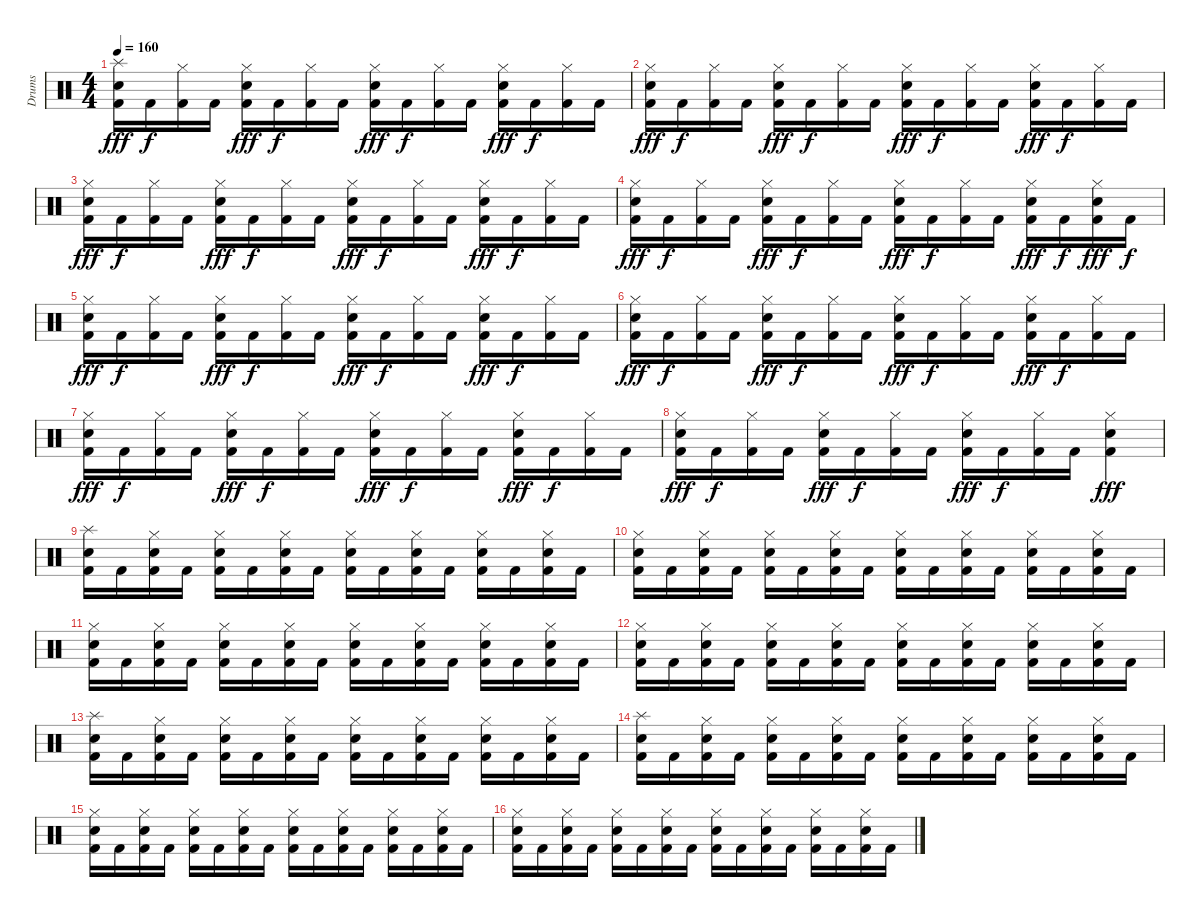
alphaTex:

\track ("Drums" "Drums") {instrument percussion}
\staff {score}
\articulation defaults
\ts (4 4)
\tempo 160
\clef neutral
\ks c
("Splash (hit)" "Snare (hit) 2" "Kick (hit) 2").16{dy fff} "Kick (hit) 2".16{dy f} ("Hi-Hat (closed)" "Kick (hit) 2").16 "Kick (hit) 2".16 ("Hi-Hat (closed)" "Snare (hit) 2" "Kick (hit) 2").16{dy fff} "Kick (hit) 2".16{dy f} ("Hi-Hat (closed)" "Kick (hit) 2").16 "Kick (hit) 2".16 ("Hi-Hat (closed)" "Snare (hit) 2" "Kick (hit) 2").16{dy fff} "Kick (hit) 2".16{dy f} ("Hi-Hat (closed)" "Kick (hit) 2").16 "Kick (hit) 2".16 ("Hi-Hat (closed)" "Snare (hit) 2" "Kick (hit) 2").16{dy fff} "Kick (hit) 2".16{dy f} ("Hi-Hat (closed)" "Kick (hit) 2").16 "Kick (hit) 2".16 |
("Hi-Hat (closed)" "Snare (hit) 2" "Kick (hit) 2").16{dy fff} "Kick (hit) 2".16{dy f} ("Hi-Hat (closed)" "Kick (hit) 2").16 "Kick (hit) 2".16 ("Hi-Hat (closed)" "Snare (hit) 2" "Kick (hit) 2").16{dy fff} "Kick (hit) 2".16{dy f} ("Hi-Hat (closed)" "Kick (hit) 2").16 "Kick (hit) 2".16 ("Hi-Hat (closed)" "Snare (hit) 2" "Kick (hit) 2").16{dy fff} "Kick (hit) 2".16{dy f} ("Hi-Hat (closed)" "Kick (hit) 2").16 "Kick (hit) 2".16 ("Hi-Hat (closed)" "Snare (hit) 2" "Kick (hit) 2").16{dy fff} "Kick (hit) 2".16{dy f} ("Hi-Hat (closed)" "Kick (hit) 2").16 "Kick (hit) 2".16 |
("Hi-Hat (closed)" "Snare (hit) 2" "Kick (hit) 2").16{dy fff} "Kick (hit) 2".16{dy f} ("Hi-Hat (closed)" "Kick (hit) 2").16 "Kick (hit) 2".16 ("Hi-Hat (closed)" "Snare (hit) 2" "Kick (hit) 2").16{dy fff} "Kick (hit) 2".16{dy f} ("Hi-Hat (closed)" "Kick (hit) 2").16 "Kick (hit) 2".16 ("Hi-Hat (closed)" "Snare (hit) 2" "Kick (hit) 2").16{dy fff} "Kick (hit) 2".16{dy f} ("Hi-Hat (closed)" "Kick (hit) 2").16 "Kick (hit) 2".16 ("Hi-Hat (closed)" "Snare (hit) 2" "Kick (hit) 2").16{dy fff} "Kick (hit) 2".16{dy f} ("Hi-Hat (closed)" "Kick (hit) 2").16 "Kick (hit) 2".16 |
("Hi-Hat (closed)" "Snare (hit) 2" "Kick (hit) 2").16{dy fff} "Kick (hit) 2".16{dy f} ("Hi-Hat (closed)" "Kick (hit) 2").16 "Kick (hit) 2".16 ("Hi-Hat (closed)" "Snare (hit) 2" "Kick (hit) 2").16{dy fff} "Kick (hit) 2".16{dy f} ("Hi-Hat (closed)" "Kick (hit) 2").16 "Kick (hit) 2".16 ("Hi-Hat (closed)" "Snare (hit) 2" "Kick (hit) 2").16{dy fff} "Kick (hit) 2".16{dy f} ("Hi-Hat (closed)" "Kick (hit) 2").16 "Kick (hit) 2".16 ("Hi-Hat (closed)" "Snare (hit) 2" "Kick (hit) 2").16{dy fff} "Kick (hit) 2".16{dy f} ("Hi-Hat (closed)" "Snare (hit) 2" "Kick (hit) 2").16{dy fff} "Kick (hit) 2".16{dy f} |
("Hi-Hat (closed)" "Snare (hit) 2" "Kick (hit) 2").16{dy fff} "Kick (hit) 2".16{dy f} ("Hi-Hat (closed)" "Kick (hit) 2").16 "Kick (hit) 2".16 ("Hi-Hat (closed)" "Snare (hit) 2" "Kick (hit) 2").16{dy fff} "Kick (hit) 2".16{dy f} ("Hi-Hat (closed)" "Kick (hit) 2").16 "Kick (hit) 2".16 ("Hi-Hat (closed)" "Snare (hit) 2" "Kick (hit) 2").16{dy fff} "Kick (hit) 2".16{dy f} ("Hi-Hat (closed)" "Kick (hit) 2").16 "Kick (hit) 2".16 ("Hi-Hat (closed)" "Snare (hit) 2" "Kick (hit) 2").16{dy fff} "Kick (hit) 2".16{dy f} ("Hi-Hat (closed)" "Kick (hit) 2").16 "Kick (hit) 2".16 |
("Hi-Hat (closed)" "Snare (hit) 2" "Kick (hit) 2").16{dy fff} "Kick (hit) 2".16{dy f} ("Hi-Hat (closed)" "Kick (hit) 2").16 "Kick (hit) 2".16 ("Hi-Hat (closed)" "Snare (hit) 2" "Kick (hit) 2").16{dy fff} "Kick (hit) 2".16{dy f} ("Hi-Hat (closed)" "Kick (hit) 2").16 "Kick (hit) 2".16 ("Hi-Hat (closed)" "Snare (hit) 2" "Kick (hit) 2").16{dy fff} "Kick (hit) 2".16{dy f} ("Hi-Hat (closed)" "Kick (hit) 2").16 "Kick (hit) 2".16 ("Hi-Hat (closed)" "Snare (hit) 2" "Kick (hit) 2").16{dy fff} "Kick (hit) 2".16{dy f} ("Hi-Hat (closed)" "Kick (hit) 2").16 "Kick (hit) 2".16 |
("Hi-Hat (closed)" "Snare (hit) 2" "Kick (hit) 2").16{dy fff} "Kick (hit) 2".16{dy f} ("Hi-Hat (closed)" "Kick (hit) 2").16 "Kick (hit) 2".16 ("Hi-Hat (closed)" "Snare (hit) 2" "Kick (hit) 2").16{dy fff} "Kick (hit) 2".16{dy f} ("Hi-Hat (closed)" "Kick (hit) 2").16 "Kick (hit) 2".16 ("Hi-Hat (closed)" "Snare (hit) 2" "Kick (hit) 2").16{dy fff} "Kick (hit) 2".16{dy f} ("Hi-Hat (closed)" "Kick (hit) 2").16 "Kick (hit) 2".16 ("Hi-Hat (closed)" "Snare (hit) 2" "Kick (hit) 2").16{dy fff} "Kick (hit) 2".16{dy f} ("Hi-Hat (closed)" "Kick (hit) 2").16 "Kick (hit) 2".16 |
("Hi-Hat (closed)" "Snare (hit) 2" "Kick (hit) 2").16{dy fff} "Kick (hit) 2".16{dy f} ("Hi-Hat (closed)" "Kick (hit) 2").16 "Kick (hit) 2".16 ("Hi-Hat (closed)" "Snare (hit) 2" "Kick (hit) 2").16{dy fff} "Kick (hit) 2".16{dy f} ("Hi-Hat (closed)" "Kick (hit) 2").16 "Kick (hit) 2".16 ("Hi-Hat (closed)" "Snare (hit) 2" "Kick (hit) 2").16{dy fff} "Kick (hit) 2".16{dy f} ("Hi-Hat (closed)" "Kick (hit) 2").16 "Kick (hit) 2".16 ("Hi-Hat (closed)" "Snare (hit) 2" "Kick (hit) 2").4{dy fff} |
("Splash (hit)" "Snare (hit) 2" "Kick (hit) 2").16 "Kick (hit) 2".16 ("Hi-Hat (closed)" "Snare (hit) 2" "Kick (hit) 2").16 "Kick (hit) 2".16 ("Hi-Hat (closed)" "Snare (hit) 2" "Kick (hit) 2").16 "Kick (hit) 2".16 ("Hi-Hat (closed)" "Snare (hit) 2" "Kick (hit) 2").16 "Kick (hit) 2".16 ("Hi-Hat (closed)" "Snare (hit) 2" "Kick (hit) 2").16 "Kick (hit) 2".16 ("Hi-Hat (closed)" "Snare (hit) 2" "Kick (hit) 2").16 "Kick (hit) 2".16 ("Hi-Hat (closed)" "Snare (hit) 2" "Kick (hit) 2").16 "Kick (hit) 2".16 ("Hi-Hat (closed)" "Snare (hit) 2" "Kick (hit) 2").16 "Kick (hit) 2".16 |
("Hi-Hat (closed)" "Snare (hit) 2" "Kick (hit) 2").16 "Kick (hit) 2".16 ("Hi-Hat (closed)" "Snare (hit) 2" "Kick (hit) 2").16 "Kick (hit) 2".16 ("Hi-Hat (closed)" "Snare (hit) 2" "Kick (hit) 2").16 "Kick (hit) 2".16 ("Hi-Hat (closed)" "Snare (hit) 2" "Kick (hit) 2").16 "Kick (hit) 2".16 ("Hi-Hat (closed)" "Snare (hit) 2" "Kick (hit) 2").16 "Kick (hit) 2".16 ("Hi-Hat (closed)" "Snare (hit) 2" "Kick (hit) 2").16 "Kick (hit) 2".16 ("Hi-Hat (closed)" "Snare (hit) 2" "Kick (hit) 2").16 "Kick (hit) 2".16 ("Hi-Hat (closed)" "Snare (hit) 2" "Kick (hit) 2").16 "Kick (hit) 2".16 |
("Hi-Hat (closed)" "Snare (hit) 2" "Kick (hit) 2").16 "Kick (hit) 2".16 ("Hi-Hat (closed)" "Snare (hit) 2" "Kick (hit) 2").16 "Kick (hit) 2".16 ("Hi-Hat (closed)" "Snare (hit) 2" "Kick (hit) 2").16 "Kick (hit) 2".16 ("Hi-Hat (closed)" "Snare (hit) 2" "Kick (hit) 2").16 "Kick (hit) 2".16 ("Hi-Hat (closed)" "Snare (hit) 2" "Kick (hit) 2").16 "Kick (hit) 2".16 ("Hi-Hat (closed)" "Snare (hit) 2" "Kick (hit) 2").16 "Kick (hit) 2".16 ("Hi-Hat (closed)" "Snare (hit) 2" "Kick (hit) 2").16 "Kick (hit) 2".16 ("Hi-Hat (closed)" "Snare (hit) 2" "Kick (hit) 2").16 "Kick (hit) 2".16 |
("Hi-Hat (closed)" "Snare (hit) 2" "Kick (hit) 2").16 "Kick (hit) 2".16 ("Hi-Hat (closed)" "Snare (hit) 2" "Kick (hit) 2").16 "Kick (hit) 2".16 ("Hi-Hat (closed)" "Snare (hit) 2" "Kick (hit) 2").16 "Kick (hit) 2".16 ("Hi-Hat (closed)" "Snare (hit) 2" "Kick (hit) 2").16 "Kick (hit) 2".16 ("Hi-Hat (closed)" "Snare (hit) 2" "Kick (hit) 2").16 "Kick (hit) 2".16 ("Hi-Hat (closed)" "Snare (hit) 2" "Kick (hit) 2").16 "Kick (hit) 2".16 ("Hi-Hat (closed)" "Snare (hit) 2" "Kick (hit) 2").16 "Kick (hit) 2".16 ("Hi-Hat (closed)" "Snare (hit) 2" "Kick (hit) 2").16 "Kick (hit) 2".16 |
("Splash (hit)" "Snare (hit) 2" "Kick (hit) 2").16 "Kick (hit) 2".16 ("Hi-Hat (closed)" "Snare (hit) 2" "Kick (hit) 2").16 "Kick (hit) 2".16 ("Hi-Hat (closed)" "Snare (hit) 2" "Kick (hit) 2").16 "Kick (hit) 2".16 ("Hi-Hat (closed)" "Snare (hit) 2" "Kick (hit) 2").16 "Kick (hit) 2".16 ("Hi-Hat (closed)" "Snare (hit) 2" "Kick (hit) 2").16 "Kick (hit) 2".16 ("Hi-Hat (closed)" "Snare (hit) 2" "Kick (hit) 2").16 "Kick (hit) 2".16 ("Hi-Hat (closed)" "Snare (hit) 2" "Kick (hit) 2").16 "Kick (hit) 2".16 ("Hi-Hat (closed)" "Snare (hit) 2" "Kick (hit) 2").16 "Kick (hit) 2".16 |
("Splash (hit)" "Snare (hit) 2" "Kick (hit) 2").16 "Kick (hit) 2".16 ("Hi-Hat (closed)" "Snare (hit) 2" "Kick (hit) 2").16 "Kick (hit) 2".16 ("Hi-Hat (closed)" "Snare (hit) 2" "Kick (hit) 2").16 "Kick (hit) 2".16 ("Hi-Hat (closed)" "Snare (hit) 2" "Kick (hit) 2").16 "Kick (hit) 2".16 ("Hi-Hat (closed)" "Snare (hit) 2" "Kick (hit) 2").16 "Kick (hit) 2".16 ("Hi-Hat (closed)" "Snare (hit) 2" "Kick (hit) 2").16 "Kick (hit) 2".16 ("Hi-Hat (closed)" "Snare (hit) 2" "Kick (hit) 2").16 "Kick (hit) 2".16 ("Hi-Hat (closed)" "Snare (hit) 2" "Kick (hit) 2").16 "Kick (hit) 2".16 |
("Hi-Hat (closed)" "Snare (hit) 2" "Kick (hit) 2").16 "Kick (hit) 2".16 ("Hi-Hat (closed)" "Snare (hit) 2" "Kick (hit) 2").16 "Kick (hit) 2".16 ("Hi-Hat (closed)" "Snare (hit) 2" "Kick (hit) 2").16 "Kick (hit) 2".16 ("Hi-Hat (closed)" "Snare (hit) 2" "Kick (hit) 2").16 "Kick (hit) 2".16 ("Hi-Hat (closed)" "Snare (hit) 2" "Kick (hit) 2").16 "Kick (hit) 2".16 ("Hi-Hat (closed)" "Snare (hit) 2" "Kick (hit) 2").16 "Kick (hit) 2".16 ("Hi-Hat (closed)" "Snare (hit) 2" "Kick (hit) 2").16 "Kick (hit) 2".16 ("Hi-Hat (closed)" "Snare (hit) 2" "Kick (hit) 2").16 "Kick (hit) 2".16 |
("Hi-Hat (closed)" "Snare (hit) 2" "Kick (hit) 2").16 "Kick (hit) 2".16 ("Hi-Hat (closed)" "Snare (hit) 2" "Kick (hit) 2").16 "Kick (hit) 2".16 ("Hi-Hat (closed)" "Snare (hit) 2" "Kick (hit) 2").16 "Kick (hit) 2".16 ("Hi-Hat (closed)" "Snare (hit) 2" "Kick (hit) 2").16 "Kick (hit) 2".16 ("Hi-Hat (closed)" "Snare (hit) 2" "Kick (hit) 2").16 "Kick (hit) 2".16 ("Hi-Hat (closed)" "Snare (hit) 2" "Kick (hit) 2").16 "Kick (hit) 2".16 ("Hi-Hat (closed)" "Snare (hit) 2" "Kick (hit) 2").16 "Kick (hit) 2".16 ("Hi-Hat (closed)" "Snare (hit) 2" "Kick (hit) 2").16 "Kick (hit) 2".16
